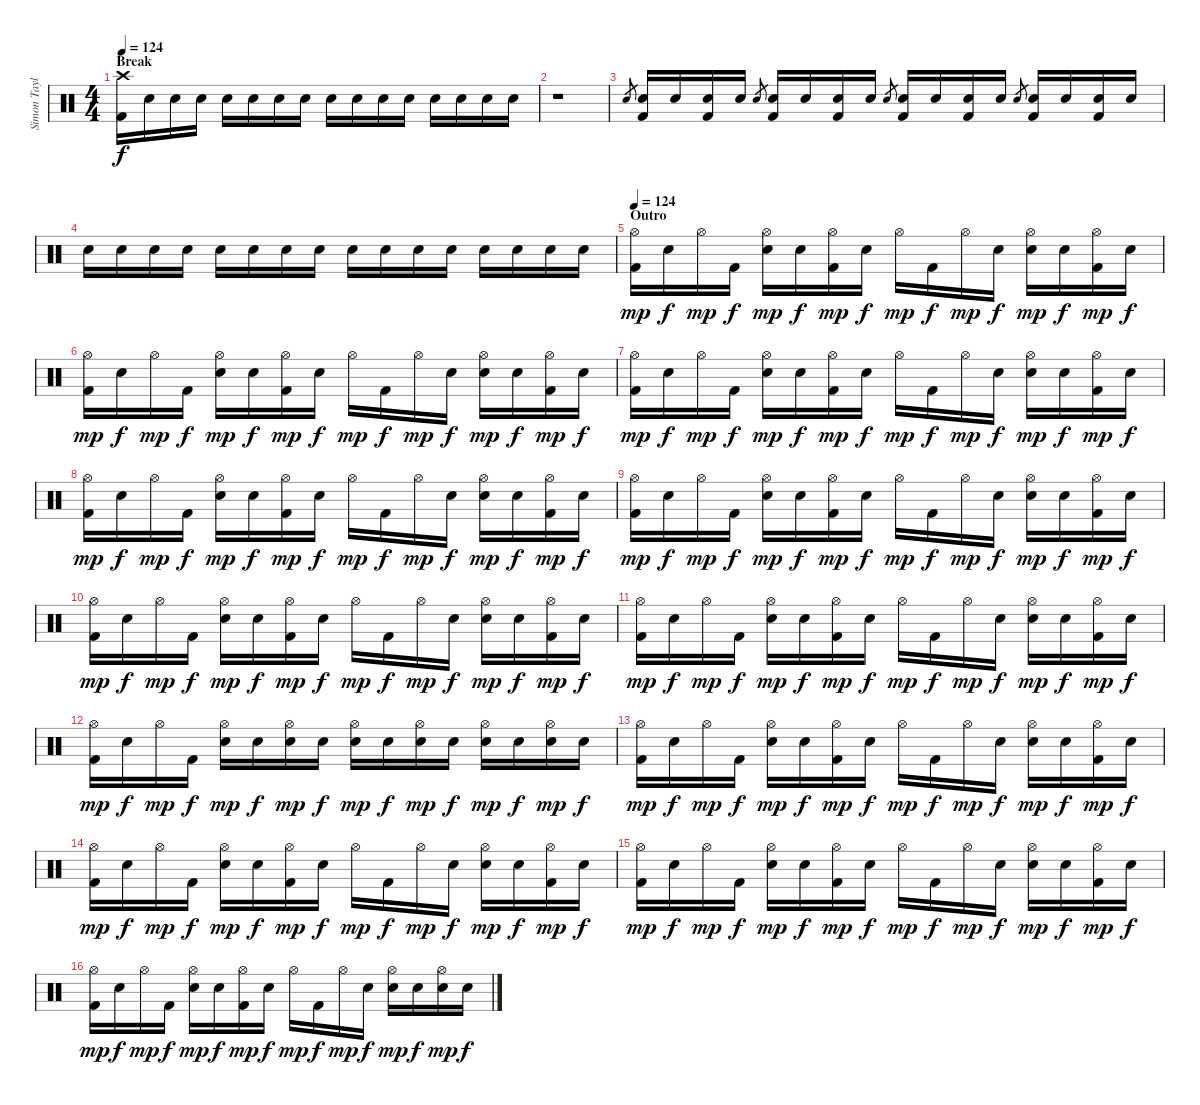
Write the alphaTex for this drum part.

\track ("Simon Taylor - Drums" "Simon Tayl") {instrument percussion}
\staff {score}
\articulation defaults
\ts (4 4)
\section ("" "Break")
\tempo 124
\clef neutral
\ks c
("Crash high (hit)" "Kick (hit) 2").16{dy f volume 16 balance 8} "Snare (hit)".16 "Snare (hit)".16 "Snare (hit)".16 "Snare (hit)".16 "Snare (hit)".16 "Snare (hit)".16 "Snare (hit)".16 "Snare (hit)".16 "Snare (hit)".16 "Snare (hit)".16 "Snare (hit)".16 "Snare (hit)".16 "Snare (hit)".16 "Snare (hit)".16 "Snare (hit)".16 |
r.1 |
"Electric Snare (hit)".8{gr} ("Electric Snare (hit)" "Kick (hit) 2").16 "Snare (hit)".16 ("Snare (hit)" "Kick (hit) 2").16 "Snare (hit)".16 "Electric Snare (hit)".8{gr} ("Electric Snare (hit)" "Kick (hit) 2").16 "Snare (hit)".16 ("Snare (hit)" "Kick (hit) 2").16 "Snare (hit)".16 "Electric Snare (hit)".8{gr} ("Electric Snare (hit)" "Kick (hit) 2").16 "Snare (hit)".16 ("Snare (hit)" "Kick (hit) 2").16 "Snare (hit)".16 "Electric Snare (hit)".8{gr} ("Electric Snare (hit)" "Kick (hit) 2").16 "Snare (hit)".16 ("Snare (hit)" "Kick (hit) 2").16 "Snare (hit)".16 |
"Electric Snare (hit)".16 "Electric Snare (hit)".16 "Electric Snare (hit)".16 "Electric Snare (hit)".16 "Electric Snare (hit)".16 "Snare (hit)".16 "Electric Snare (hit)".16 "Electric Snare (hit)".16 "Electric Snare (hit)".16 "Electric Snare (hit)".16 "Electric Snare (hit)".16 "Snare (hit)".16 "Electric Snare (hit)".16 "Electric Snare (hit)".16 "Electric Snare (hit)".16 "Electric Snare (hit)".16 |
\section ("" "Outro")
\tempo 124
("Hi-Hat (open)" "Kick (hit) 2").16{dy mp volume 16 balance 8} "Snare (hit)".16{dy f} "Hi-Hat (open)".16{dy mp} "Kick (hit) 2".16{dy f} ("Hi-Hat (open)" "Electric Snare (hit)").16{dy mp} "Snare (hit)".16{dy f} ("Hi-Hat (open)" "Kick (hit) 2").16{dy mp} "Snare (hit)".16{dy f} "Hi-Hat (open)".16{dy mp} "Kick (hit) 2".16{dy f} "Hi-Hat (open)".16{dy mp} "Snare (hit)".16{dy f} ("Hi-Hat (open)" "Electric Snare (hit)").16{dy mp} "Snare (hit)".16{dy f} ("Hi-Hat (open)" "Kick (hit) 2").16{dy mp} "Snare (hit)".16{dy f} |
("Hi-Hat (open)" "Kick (hit) 2").16{dy mp} "Snare (hit)".16{dy f} "Hi-Hat (open)".16{dy mp} "Kick (hit) 2".16{dy f} ("Hi-Hat (open)" "Electric Snare (hit)").16{dy mp} "Snare (hit)".16{dy f} ("Hi-Hat (open)" "Kick (hit) 2").16{dy mp} "Snare (hit)".16{dy f} "Hi-Hat (open)".16{dy mp} "Kick (hit) 2".16{dy f} "Hi-Hat (open)".16{dy mp} "Snare (hit)".16{dy f} ("Hi-Hat (open)" "Electric Snare (hit)").16{dy mp} "Snare (hit)".16{dy f} ("Hi-Hat (open)" "Kick (hit) 2").16{dy mp} "Snare (hit)".16{dy f} |
("Hi-Hat (open)" "Kick (hit) 2").16{dy mp} "Snare (hit)".16{dy f} "Hi-Hat (open)".16{dy mp} "Kick (hit) 2".16{dy f} ("Hi-Hat (open)" "Electric Snare (hit)").16{dy mp} "Snare (hit)".16{dy f} ("Hi-Hat (open)" "Kick (hit) 2").16{dy mp} "Snare (hit)".16{dy f} "Hi-Hat (open)".16{dy mp} "Kick (hit) 2".16{dy f} "Hi-Hat (open)".16{dy mp} "Snare (hit)".16{dy f} ("Hi-Hat (open)" "Electric Snare (hit)").16{dy mp} "Snare (hit)".16{dy f} ("Hi-Hat (open)" "Kick (hit) 2").16{dy mp} "Snare (hit)".16{dy f} |
("Hi-Hat (open)" "Kick (hit) 2").16{dy mp} "Snare (hit)".16{dy f} "Hi-Hat (open)".16{dy mp} "Kick (hit) 2".16{dy f} ("Hi-Hat (open)" "Electric Snare (hit)").16{dy mp} "Snare (hit)".16{dy f} ("Hi-Hat (open)" "Kick (hit) 2").16{dy mp} "Snare (hit)".16{dy f} "Hi-Hat (open)".16{dy mp} "Kick (hit) 2".16{dy f} "Hi-Hat (open)".16{dy mp} "Snare (hit)".16{dy f} ("Hi-Hat (open)" "Electric Snare (hit)").16{dy mp} "Snare (hit)".16{dy f} ("Hi-Hat (open)" "Kick (hit) 2").16{dy mp} "Snare (hit)".16{dy f} |
("Hi-Hat (open)" "Kick (hit) 2").16{dy mp} "Snare (hit)".16{dy f} "Hi-Hat (open)".16{dy mp} "Kick (hit) 2".16{dy f} ("Hi-Hat (open)" "Electric Snare (hit)").16{dy mp} "Snare (hit)".16{dy f} ("Hi-Hat (open)" "Kick (hit) 2").16{dy mp} "Snare (hit)".16{dy f} "Hi-Hat (open)".16{dy mp} "Kick (hit) 2".16{dy f} "Hi-Hat (open)".16{dy mp} "Snare (hit)".16{dy f} ("Hi-Hat (open)" "Electric Snare (hit)").16{dy mp} "Snare (hit)".16{dy f} ("Hi-Hat (open)" "Kick (hit) 2").16{dy mp} "Snare (hit)".16{dy f} |
("Hi-Hat (open)" "Kick (hit) 2").16{dy mp} "Snare (hit)".16{dy f} "Hi-Hat (open)".16{dy mp} "Kick (hit) 2".16{dy f} ("Hi-Hat (open)" "Electric Snare (hit)").16{dy mp} "Snare (hit)".16{dy f} ("Hi-Hat (open)" "Kick (hit) 2").16{dy mp} "Snare (hit)".16{dy f} "Hi-Hat (open)".16{dy mp} "Kick (hit) 2".16{dy f} "Hi-Hat (open)".16{dy mp} "Snare (hit)".16{dy f} ("Hi-Hat (open)" "Electric Snare (hit)").16{dy mp} "Snare (hit)".16{dy f} ("Hi-Hat (open)" "Kick (hit) 2").16{dy mp} "Snare (hit)".16{dy f} |
("Hi-Hat (open)" "Kick (hit) 2").16{dy mp} "Snare (hit)".16{dy f} "Hi-Hat (open)".16{dy mp} "Kick (hit) 2".16{dy f} ("Hi-Hat (open)" "Electric Snare (hit)").16{dy mp} "Snare (hit)".16{dy f} ("Hi-Hat (open)" "Kick (hit) 2").16{dy mp} "Snare (hit)".16{dy f} "Hi-Hat (open)".16{dy mp} "Kick (hit) 2".16{dy f} "Hi-Hat (open)".16{dy mp} "Snare (hit)".16{dy f} ("Hi-Hat (open)" "Electric Snare (hit)").16{dy mp} "Snare (hit)".16{dy f} ("Hi-Hat (open)" "Kick (hit) 2").16{dy mp} "Snare (hit)".16{dy f} |
("Hi-Hat (open)" "Kick (hit) 2").16{dy mp} "Snare (hit)".16{dy f} "Hi-Hat (open)".16{dy mp} "Kick (hit) 2".16{dy f} ("Hi-Hat (open)" "Electric Snare (hit)").16{dy mp} "Electric Snare (hit)".16{dy f} ("Hi-Hat (open)" "Electric Snare (hit)").16{dy mp} "Snare (hit)".16{dy f} ("Hi-Hat (open)" "Electric Snare (hit)").16{dy mp} "Electric Snare (hit)".16{dy f} ("Hi-Hat (open)" "Electric Snare (hit)").16{dy mp} "Snare (hit)".16{dy f} ("Hi-Hat (open)" "Electric Snare (hit)").16{dy mp} "Electric Snare (hit)".16{dy f} ("Hi-Hat (open)" "Electric Snare (hit)").16{dy mp} "Snare (hit)".16{dy f} |
("Hi-Hat (open)" "Kick (hit) 2").16{dy mp} "Snare (hit)".16{dy f} "Hi-Hat (open)".16{dy mp} "Kick (hit) 2".16{dy f} ("Hi-Hat (open)" "Electric Snare (hit)").16{dy mp} "Snare (hit)".16{dy f} ("Hi-Hat (open)" "Kick (hit) 2").16{dy mp} "Snare (hit)".16{dy f} "Hi-Hat (open)".16{dy mp} "Kick (hit) 2".16{dy f} "Hi-Hat (open)".16{dy mp} "Snare (hit)".16{dy f} ("Hi-Hat (open)" "Electric Snare (hit)").16{dy mp} "Snare (hit)".16{dy f} ("Hi-Hat (open)" "Kick (hit) 2").16{dy mp} "Snare (hit)".16{dy f} |
("Hi-Hat (open)" "Kick (hit) 2").16{dy mp} "Snare (hit)".16{dy f} "Hi-Hat (open)".16{dy mp} "Kick (hit) 2".16{dy f} ("Hi-Hat (open)" "Electric Snare (hit)").16{dy mp} "Snare (hit)".16{dy f} ("Hi-Hat (open)" "Kick (hit) 2").16{dy mp} "Snare (hit)".16{dy f} "Hi-Hat (open)".16{dy mp} "Kick (hit) 2".16{dy f} "Hi-Hat (open)".16{dy mp} "Snare (hit)".16{dy f} ("Hi-Hat (open)" "Electric Snare (hit)").16{dy mp} "Snare (hit)".16{dy f} ("Hi-Hat (open)" "Kick (hit) 2").16{dy mp} "Snare (hit)".16{dy f} |
("Hi-Hat (open)" "Kick (hit) 2").16{dy mp} "Snare (hit)".16{dy f} "Hi-Hat (open)".16{dy mp} "Kick (hit) 2".16{dy f} ("Hi-Hat (open)" "Electric Snare (hit)").16{dy mp} "Snare (hit)".16{dy f} ("Hi-Hat (open)" "Kick (hit) 2").16{dy mp} "Snare (hit)".16{dy f} "Hi-Hat (open)".16{dy mp} "Kick (hit) 2".16{dy f} "Hi-Hat (open)".16{dy mp} "Snare (hit)".16{dy f} ("Hi-Hat (open)" "Electric Snare (hit)").16{dy mp} "Snare (hit)".16{dy f} ("Hi-Hat (open)" "Kick (hit) 2").16{dy mp} "Snare (hit)".16{dy f} |
("Hi-Hat (open)" "Kick (hit) 2").16{dy mp} "Snare (hit)".16{dy f} "Hi-Hat (open)".16{dy mp} "Kick (hit) 2".16{dy f} ("Hi-Hat (open)" "Electric Snare (hit)").16{dy mp} "Snare (hit)".16{dy f} ("Hi-Hat (open)" "Kick (hit) 2").16{dy mp} "Snare (hit)".16{dy f} "Hi-Hat (open)".16{dy mp} "Kick (hit) 2".16{dy f} "Hi-Hat (open)".16{dy mp} "Snare (hit)".16{dy f} ("Hi-Hat (open)" "Electric Snare (hit)").16{dy mp} "Electric Snare (hit)".16{dy f} ("Hi-Hat (open)" "Electric Snare (hit)").16{dy mp} "Electric Snare (hit)".16{dy f}
